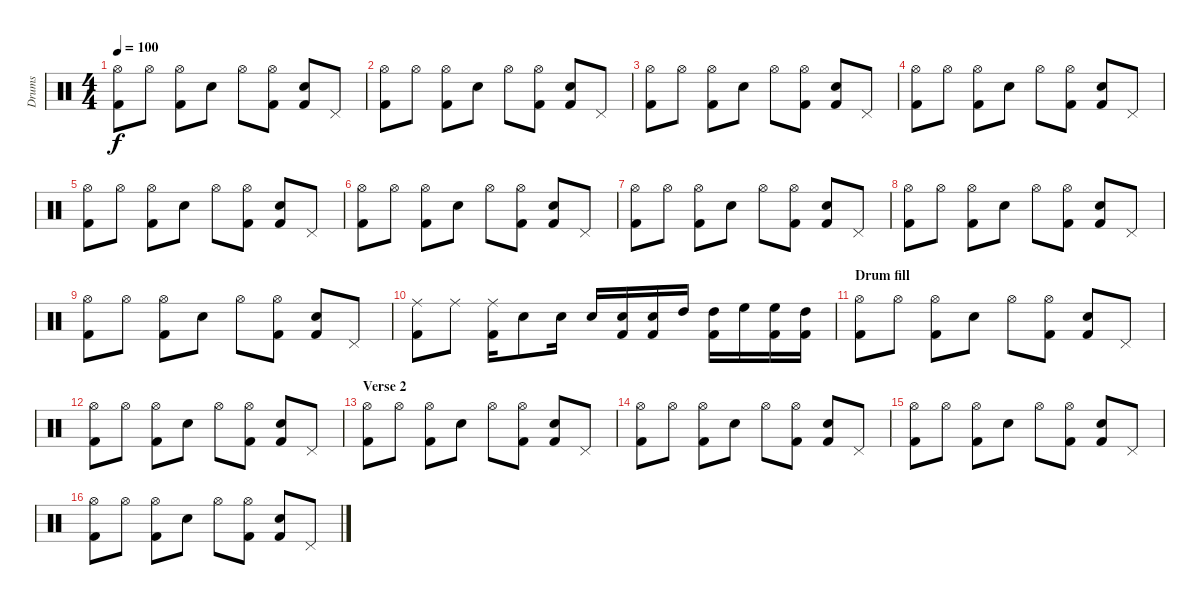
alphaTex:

\track ("Drums" "Drums") {instrument percussion}
\staff {score}
\articulation defaults
\ts (4 4)
\tempo 100
\clef neutral
\ks c
("Hi-Hat (open)" "Kick (hit) 2").8{dy f} "Hi-Hat (open)".8 ("Hi-Hat (open)" "Kick (hit) 2").8 "Snare (hit) 2".8 "Hi-Hat (open)".8 ("Hi-Hat (open)" "Kick (hit) 2").8 ("Snare (hit) 2" "Kick (hit) 2").8 "Pedal Hi-Hat (hit)".8 |
("Hi-Hat (open)" "Kick (hit) 2").8 "Hi-Hat (open)".8 ("Hi-Hat (open)" "Kick (hit) 2").8 "Snare (hit) 2".8 "Hi-Hat (open)".8 ("Hi-Hat (open)" "Kick (hit) 2").8 ("Snare (hit) 2" "Kick (hit) 2").8 "Pedal Hi-Hat (hit)".8 |
("Hi-Hat (open)" "Kick (hit) 2").8 "Hi-Hat (open)".8 ("Hi-Hat (open)" "Kick (hit) 2").8 "Snare (hit) 2".8 "Hi-Hat (open)".8 ("Hi-Hat (open)" "Kick (hit) 2").8 ("Snare (hit) 2" "Kick (hit) 2").8 "Pedal Hi-Hat (hit)".8 |
("Hi-Hat (open)" "Kick (hit) 2").8 "Hi-Hat (open)".8 ("Hi-Hat (open)" "Kick (hit) 2").8 "Snare (hit) 2".8 "Hi-Hat (open)".8 ("Hi-Hat (open)" "Kick (hit) 2").8 ("Snare (hit) 2" "Kick (hit) 2").8 "Pedal Hi-Hat (hit)".8 |
("Hi-Hat (open)" "Kick (hit) 2").8 "Hi-Hat (open)".8 ("Hi-Hat (open)" "Kick (hit) 2").8 "Snare (hit) 2".8 "Hi-Hat (open)".8 ("Hi-Hat (open)" "Kick (hit) 2").8 ("Snare (hit) 2" "Kick (hit) 2").8 "Pedal Hi-Hat (hit)".8 |
("Hi-Hat (open)" "Kick (hit) 2").8 "Hi-Hat (open)".8 ("Hi-Hat (open)" "Kick (hit) 2").8 "Snare (hit) 2".8 "Hi-Hat (open)".8 ("Hi-Hat (open)" "Kick (hit) 2").8 ("Snare (hit) 2" "Kick (hit) 2").8 "Pedal Hi-Hat (hit)".8 |
("Hi-Hat (open)" "Kick (hit) 2").8 "Hi-Hat (open)".8 ("Hi-Hat (open)" "Kick (hit) 2").8 "Snare (hit) 2".8 "Hi-Hat (open)".8 ("Hi-Hat (open)" "Kick (hit) 2").8 ("Snare (hit) 2" "Kick (hit) 2").8 "Pedal Hi-Hat (hit)".8 |
("Hi-Hat (open)" "Kick (hit) 2").8 "Hi-Hat (open)".8 ("Hi-Hat (open)" "Kick (hit) 2").8 "Snare (hit) 2".8 "Hi-Hat (open)".8 ("Hi-Hat (open)" "Kick (hit) 2").8 ("Snare (hit) 2" "Kick (hit) 2").8 "Pedal Hi-Hat (hit)".8 |
("Hi-Hat (open)" "Kick (hit) 2").8 "Hi-Hat (open)".8 ("Hi-Hat (open)" "Kick (hit) 2").8 "Snare (hit) 2".8 "Hi-Hat (open)".8 ("Hi-Hat (open)" "Kick (hit) 2").8 ("Snare (hit) 2" "Kick (hit) 2").8 "Pedal Hi-Hat (hit)".8 |
("Ride (middle)" "Kick (hit) 2").8 "Ride (middle)".8 ("Ride (middle)" "Kick (hit) 2").16 "Electric Snare (hit)".8 "Electric Snare (hit)".16 "Electric Snare (hit)".16 ("Electric Snare (hit)" "Kick (hit) 2").16 ("Electric Snare (hit)" "Kick (hit) 2").16 "High Tom (hit)".16 ("High Tom (hit)" "Kick (hit) 2").16 "High Floor Tom (hit)".16 ("High Floor Tom (hit)" "Kick (hit) 2").16 ("High Tom (hit)" "Kick (hit) 2").16 |
\section ("" "Drum fill")
("Hi-Hat (open)" "Kick (hit) 2").8 "Hi-Hat (open)".8 ("Hi-Hat (open)" "Kick (hit) 2").8 "Snare (hit) 2".8 "Hi-Hat (open)".8 ("Hi-Hat (open)" "Kick (hit) 2").8 ("Snare (hit) 2" "Kick (hit) 2").8 "Pedal Hi-Hat (hit)".8 |
("Hi-Hat (open)" "Kick (hit) 2").8 "Hi-Hat (open)".8 ("Hi-Hat (open)" "Kick (hit) 2").8 "Snare (hit) 2".8 "Hi-Hat (open)".8 ("Hi-Hat (open)" "Kick (hit) 2").8 ("Snare (hit) 2" "Kick (hit) 2").8 "Pedal Hi-Hat (hit)".8 |
\section ("" "Verse 2")
("Hi-Hat (open)" "Kick (hit) 2").8 "Hi-Hat (open)".8 ("Hi-Hat (open)" "Kick (hit) 2").8 "Snare (hit) 2".8 "Hi-Hat (open)".8 ("Hi-Hat (open)" "Kick (hit) 2").8 ("Snare (hit) 2" "Kick (hit) 2").8 "Pedal Hi-Hat (hit)".8 |
("Hi-Hat (open)" "Kick (hit) 2").8 "Hi-Hat (open)".8 ("Hi-Hat (open)" "Kick (hit) 2").8 "Snare (hit) 2".8 "Hi-Hat (open)".8 ("Hi-Hat (open)" "Kick (hit) 2").8 ("Snare (hit) 2" "Kick (hit) 2").8 "Pedal Hi-Hat (hit)".8 |
("Hi-Hat (open)" "Kick (hit) 2").8 "Hi-Hat (open)".8 ("Hi-Hat (open)" "Kick (hit) 2").8 "Snare (hit) 2".8 "Hi-Hat (open)".8 ("Hi-Hat (open)" "Kick (hit) 2").8 ("Snare (hit) 2" "Kick (hit) 2").8 "Pedal Hi-Hat (hit)".8 |
("Hi-Hat (open)" "Kick (hit) 2").8 "Hi-Hat (open)".8 ("Hi-Hat (open)" "Kick (hit) 2").8 "Snare (hit) 2".8 "Hi-Hat (open)".8 ("Hi-Hat (open)" "Kick (hit) 2").8 ("Snare (hit) 2" "Kick (hit) 2").8 "Pedal Hi-Hat (hit)".8
